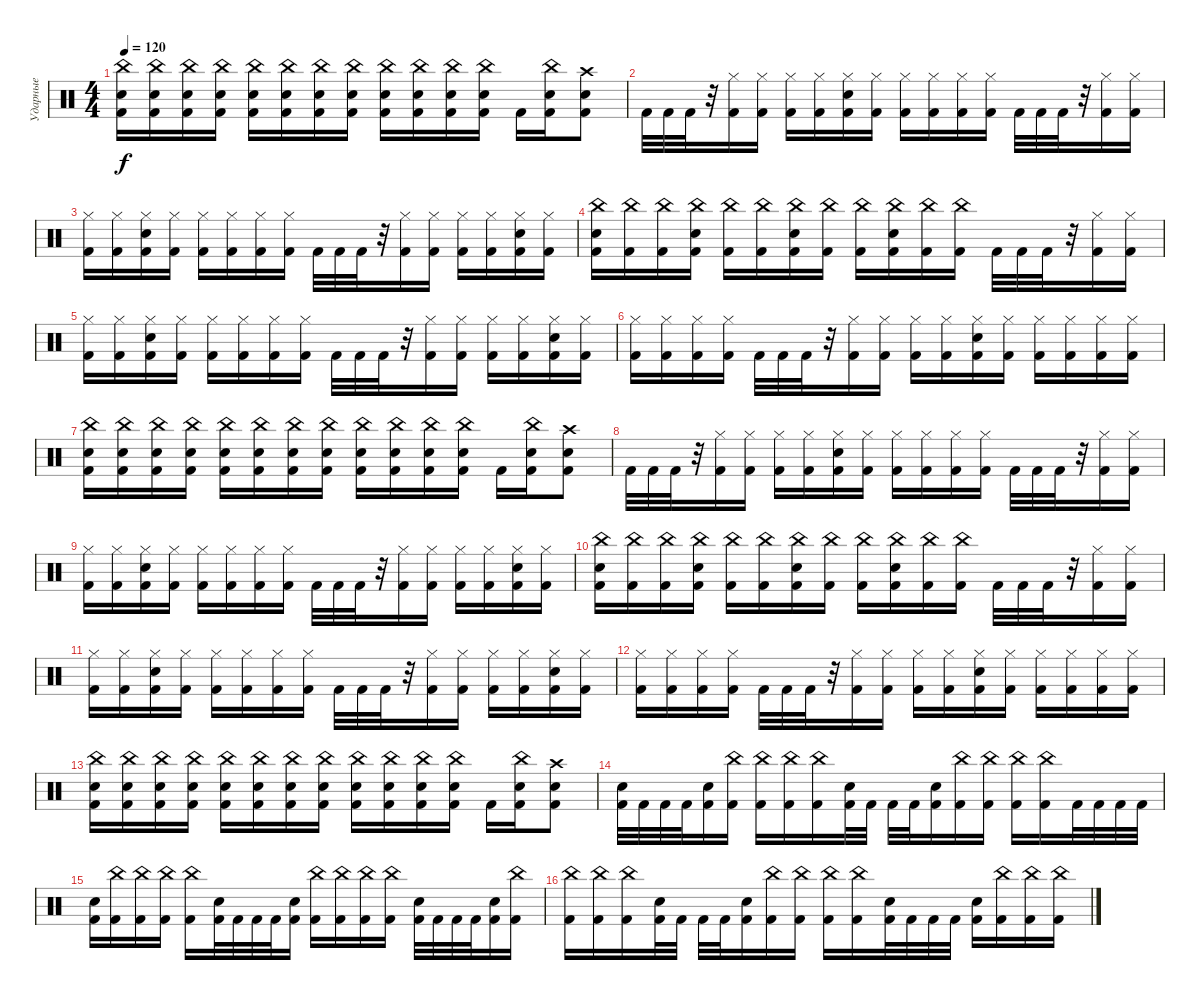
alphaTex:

\track ("Ударные" "Ударные") {instrument percussion}
\staff {score}
\articulation defaults
\ts (4 4)
\tempo 120
\clef neutral
\ks c
("China (hit)" "Snare (hit) 2" "Kick (hit) 2").16{dy f} ("China (hit)" "Snare (hit) 2" "Kick (hit) 2").16 ("China (hit)" "Snare (hit) 2" "Kick (hit) 2").16 ("China (hit)" "Snare (hit) 2" "Kick (hit) 2").16 ("China (hit)" "Snare (hit) 2" "Kick (hit) 2").16 ("China (hit)" "Snare (hit) 2" "Kick (hit) 2").16 ("China (hit)" "Snare (hit) 2" "Kick (hit) 2").16 ("China (hit)" "Snare (hit) 2" "Kick (hit) 2").16 ("China (hit)" "Snare (hit) 2" "Kick (hit) 2").16 ("China (hit)" "Snare (hit) 2" "Kick (hit) 2").16 ("China (hit)" "Snare (hit) 2" "Kick (hit) 2").16 ("China (hit)" "Snare (hit) 2" "Kick (hit) 2").16 "Kick (hit) 2".16 ("Snare (hit) 2" "China (hit)" "Kick (hit) 2").16 ("Snare (hit) 2" "Crash high (hit)" "Kick (hit) 2").8 |
"Kick (hit) 2".32 "Kick (hit) 2".32 "Kick (hit) 2".32 r.32 ("Hi-Hat (closed)" "Kick (hit) 2").16 ("Hi-Hat (closed)" "Kick (hit) 2").16 ("Hi-Hat (closed)" "Kick (hit) 2").16 ("Hi-Hat (closed)" "Kick (hit) 2").16 ("Snare (hit) 2" "Hi-Hat (closed)" "Kick (hit) 2").16 ("Hi-Hat (closed)" "Kick (hit) 2").16 ("Hi-Hat (closed)" "Kick (hit) 2").16 ("Hi-Hat (closed)" "Kick (hit) 2").16 ("Hi-Hat (closed)" "Kick (hit) 2").16 ("Hi-Hat (closed)" "Kick (hit) 2").16 "Kick (hit) 2".32 "Kick (hit) 2".32 "Kick (hit) 2".32 r.32 ("Hi-Hat (closed)" "Kick (hit) 2").16 ("Hi-Hat (closed)" "Kick (hit) 2").16 |
("Hi-Hat (closed)" "Kick (hit) 2").16 ("Hi-Hat (closed)" "Kick (hit) 2").16 ("Snare (hit) 2" "Hi-Hat (closed)" "Kick (hit) 2").16 ("Hi-Hat (closed)" "Kick (hit) 2").16 ("Hi-Hat (closed)" "Kick (hit) 2").16 ("Hi-Hat (closed)" "Kick (hit) 2").16 ("Hi-Hat (closed)" "Kick (hit) 2").16 ("Hi-Hat (closed)" "Kick (hit) 2").16 "Kick (hit) 2".32 "Kick (hit) 2".32 "Kick (hit) 2".32 r.32 ("Hi-Hat (closed)" "Kick (hit) 2").16 ("Hi-Hat (closed)" "Kick (hit) 2").16 ("Hi-Hat (closed)" "Kick (hit) 2").16 ("Hi-Hat (closed)" "Kick (hit) 2").16 ("Snare (hit) 2" "Hi-Hat (closed)" "Kick (hit) 2").16 ("Hi-Hat (closed)" "Kick (hit) 2").16 |
("China (hit)" "Snare (hit) 2" "Kick (hit) 2").16 ("China (hit)" "Kick (hit) 2").16 ("China (hit)" "Kick (hit) 2").16 ("China (hit)" "Snare (hit) 2" "Kick (hit) 2").16 ("China (hit)" "Kick (hit) 2").16 ("China (hit)" "Kick (hit) 2").16 ("China (hit)" "Snare (hit) 2" "Kick (hit) 2").16 ("China (hit)" "Kick (hit) 2").16 ("China (hit)" "Kick (hit) 2").16 ("China (hit)" "Snare (hit) 2" "Kick (hit) 2").16 ("China (hit)" "Kick (hit) 2").16 ("China (hit)" "Kick (hit) 2").16 "Kick (hit) 2".32 "Kick (hit) 2".32 "Kick (hit) 2".32 r.32 ("Hi-Hat (closed)" "Kick (hit) 2").16 ("Hi-Hat (closed)" "Kick (hit) 2").16 |
("Hi-Hat (closed)" "Kick (hit) 2").16 ("Hi-Hat (closed)" "Kick (hit) 2").16 ("Snare (hit) 2" "Hi-Hat (closed)" "Kick (hit) 2").16 ("Hi-Hat (closed)" "Kick (hit) 2").16 ("Hi-Hat (closed)" "Kick (hit) 2").16 ("Hi-Hat (closed)" "Kick (hit) 2").16 ("Hi-Hat (closed)" "Kick (hit) 2").16 ("Hi-Hat (closed)" "Kick (hit) 2").16 "Kick (hit) 2".32 "Kick (hit) 2".32 "Kick (hit) 2".32 r.32 ("Hi-Hat (closed)" "Kick (hit) 2").16 ("Hi-Hat (closed)" "Kick (hit) 2").16 ("Hi-Hat (closed)" "Kick (hit) 2").16 ("Hi-Hat (closed)" "Kick (hit) 2").16 ("Snare (hit) 2" "Hi-Hat (closed)" "Kick (hit) 2").16 ("Hi-Hat (closed)" "Kick (hit) 2").16 |
("Hi-Hat (closed)" "Kick (hit) 2").16 ("Hi-Hat (closed)" "Kick (hit) 2").16 ("Hi-Hat (closed)" "Kick (hit) 2").16 ("Hi-Hat (closed)" "Kick (hit) 2").16 "Kick (hit) 2".32 "Kick (hit) 2".32 "Kick (hit) 2".32 r.32 ("Hi-Hat (closed)" "Kick (hit) 2").16 ("Hi-Hat (closed)" "Kick (hit) 2").16 ("Hi-Hat (closed)" "Kick (hit) 2").16 ("Hi-Hat (closed)" "Kick (hit) 2").16 ("Snare (hit) 2" "Hi-Hat (closed)" "Kick (hit) 2").16 ("Hi-Hat (closed)" "Kick (hit) 2").16 ("Hi-Hat (closed)" "Kick (hit) 2").16 ("Hi-Hat (closed)" "Kick (hit) 2").16 ("Hi-Hat (closed)" "Kick (hit) 2").16 ("Hi-Hat (closed)" "Kick (hit) 2").16 |
("China (hit)" "Snare (hit) 2" "Kick (hit) 2").16 ("China (hit)" "Snare (hit) 2" "Kick (hit) 2").16 ("China (hit)" "Snare (hit) 2" "Kick (hit) 2").16 ("China (hit)" "Snare (hit) 2" "Kick (hit) 2").16 ("China (hit)" "Snare (hit) 2" "Kick (hit) 2").16 ("China (hit)" "Snare (hit) 2" "Kick (hit) 2").16 ("China (hit)" "Snare (hit) 2" "Kick (hit) 2").16 ("China (hit)" "Snare (hit) 2" "Kick (hit) 2").16 ("China (hit)" "Snare (hit) 2" "Kick (hit) 2").16 ("China (hit)" "Snare (hit) 2" "Kick (hit) 2").16 ("China (hit)" "Snare (hit) 2" "Kick (hit) 2").16 ("China (hit)" "Snare (hit) 2" "Kick (hit) 2").16 "Kick (hit) 2".16 ("Snare (hit) 2" "China (hit)" "Kick (hit) 2").16 ("Snare (hit) 2" "Crash high (hit)" "Kick (hit) 2").8 |
"Kick (hit) 2".32 "Kick (hit) 2".32 "Kick (hit) 2".32 r.32 ("Hi-Hat (closed)" "Kick (hit) 2").16 ("Hi-Hat (closed)" "Kick (hit) 2").16 ("Hi-Hat (closed)" "Kick (hit) 2").16 ("Hi-Hat (closed)" "Kick (hit) 2").16 ("Snare (hit) 2" "Hi-Hat (closed)" "Kick (hit) 2").16 ("Hi-Hat (closed)" "Kick (hit) 2").16 ("Hi-Hat (closed)" "Kick (hit) 2").16 ("Hi-Hat (closed)" "Kick (hit) 2").16 ("Hi-Hat (closed)" "Kick (hit) 2").16 ("Hi-Hat (closed)" "Kick (hit) 2").16 "Kick (hit) 2".32 "Kick (hit) 2".32 "Kick (hit) 2".32 r.32 ("Hi-Hat (closed)" "Kick (hit) 2").16 ("Hi-Hat (closed)" "Kick (hit) 2").16 |
("Hi-Hat (closed)" "Kick (hit) 2").16 ("Hi-Hat (closed)" "Kick (hit) 2").16 ("Snare (hit) 2" "Hi-Hat (closed)" "Kick (hit) 2").16 ("Hi-Hat (closed)" "Kick (hit) 2").16 ("Hi-Hat (closed)" "Kick (hit) 2").16 ("Hi-Hat (closed)" "Kick (hit) 2").16 ("Hi-Hat (closed)" "Kick (hit) 2").16 ("Hi-Hat (closed)" "Kick (hit) 2").16 "Kick (hit) 2".32 "Kick (hit) 2".32 "Kick (hit) 2".32 r.32 ("Hi-Hat (closed)" "Kick (hit) 2").16 ("Hi-Hat (closed)" "Kick (hit) 2").16 ("Hi-Hat (closed)" "Kick (hit) 2").16 ("Hi-Hat (closed)" "Kick (hit) 2").16 ("Snare (hit) 2" "Hi-Hat (closed)" "Kick (hit) 2").16 ("Hi-Hat (closed)" "Kick (hit) 2").16 |
("China (hit)" "Snare (hit) 2" "Kick (hit) 2").16 ("China (hit)" "Kick (hit) 2").16 ("China (hit)" "Kick (hit) 2").16 ("China (hit)" "Snare (hit) 2" "Kick (hit) 2").16 ("China (hit)" "Kick (hit) 2").16 ("China (hit)" "Kick (hit) 2").16 ("China (hit)" "Snare (hit) 2" "Kick (hit) 2").16 ("China (hit)" "Kick (hit) 2").16 ("China (hit)" "Kick (hit) 2").16 ("China (hit)" "Snare (hit) 2" "Kick (hit) 2").16 ("China (hit)" "Kick (hit) 2").16 ("China (hit)" "Kick (hit) 2").16 "Kick (hit) 2".32 "Kick (hit) 2".32 "Kick (hit) 2".32 r.32 ("Hi-Hat (closed)" "Kick (hit) 2").16 ("Hi-Hat (closed)" "Kick (hit) 2").16 |
("Hi-Hat (closed)" "Kick (hit) 2").16 ("Hi-Hat (closed)" "Kick (hit) 2").16 ("Snare (hit) 2" "Hi-Hat (closed)" "Kick (hit) 2").16 ("Hi-Hat (closed)" "Kick (hit) 2").16 ("Hi-Hat (closed)" "Kick (hit) 2").16 ("Hi-Hat (closed)" "Kick (hit) 2").16 ("Hi-Hat (closed)" "Kick (hit) 2").16 ("Hi-Hat (closed)" "Kick (hit) 2").16 "Kick (hit) 2".32 "Kick (hit) 2".32 "Kick (hit) 2".32 r.32 ("Hi-Hat (closed)" "Kick (hit) 2").16 ("Hi-Hat (closed)" "Kick (hit) 2").16 ("Hi-Hat (closed)" "Kick (hit) 2").16 ("Hi-Hat (closed)" "Kick (hit) 2").16 ("Snare (hit) 2" "Hi-Hat (closed)" "Kick (hit) 2").16 ("Hi-Hat (closed)" "Kick (hit) 2").16 |
("Hi-Hat (closed)" "Kick (hit) 2").16 ("Hi-Hat (closed)" "Kick (hit) 2").16 ("Hi-Hat (closed)" "Kick (hit) 2").16 ("Hi-Hat (closed)" "Kick (hit) 2").16 "Kick (hit) 2".32 "Kick (hit) 2".32 "Kick (hit) 2".32 r.32 ("Hi-Hat (closed)" "Kick (hit) 2").16 ("Hi-Hat (closed)" "Kick (hit) 2").16 ("Hi-Hat (closed)" "Kick (hit) 2").16 ("Hi-Hat (closed)" "Kick (hit) 2").16 ("Snare (hit) 2" "Hi-Hat (closed)" "Kick (hit) 2").16 ("Hi-Hat (closed)" "Kick (hit) 2").16 ("Hi-Hat (closed)" "Kick (hit) 2").16 ("Hi-Hat (closed)" "Kick (hit) 2").16 ("Hi-Hat (closed)" "Kick (hit) 2").16 ("Hi-Hat (closed)" "Kick (hit) 2").16 |
("China (hit)" "Snare (hit) 2" "Kick (hit) 2").16 ("China (hit)" "Snare (hit) 2" "Kick (hit) 2").16 ("China (hit)" "Snare (hit) 2" "Kick (hit) 2").16 ("China (hit)" "Snare (hit) 2" "Kick (hit) 2").16 ("China (hit)" "Snare (hit) 2" "Kick (hit) 2").16 ("China (hit)" "Snare (hit) 2" "Kick (hit) 2").16 ("China (hit)" "Snare (hit) 2" "Kick (hit) 2").16 ("China (hit)" "Snare (hit) 2" "Kick (hit) 2").16 ("China (hit)" "Snare (hit) 2" "Kick (hit) 2").16 ("China (hit)" "Snare (hit) 2" "Kick (hit) 2").16 ("China (hit)" "Snare (hit) 2" "Kick (hit) 2").16 ("China (hit)" "Snare (hit) 2" "Kick (hit) 2").16 "Kick (hit) 2".16 ("Snare (hit) 2" "China (hit)" "Kick (hit) 2").16 ("Snare (hit) 2" "Crash high (hit)" "Kick (hit) 2").8 |
("Snare (hit) 2" "Kick (hit) 2").32 "Kick (hit) 2".32 "Kick (hit) 2".32 "Kick (hit) 2".32 ("Snare (hit) 2" "Kick (hit) 2").16 ("China (hit)" "Kick (hit) 2").16 ("China (hit)" "Kick (hit) 2").16 ("China (hit)" "Kick (hit) 2").16 ("China (hit)" "Kick (hit) 2").16 ("Snare (hit) 2" "Kick (hit) 2").32 "Kick (hit) 2".32 "Kick (hit) 2".32 "Kick (hit) 2".32 ("Snare (hit) 2" "Kick (hit) 2").16 ("China (hit)" "Kick (hit) 2").16 ("China (hit)" "Kick (hit) 2").16 ("China (hit)" "Kick (hit) 2").16 ("China (hit)" "Kick (hit) 2").16 "Kick (hit) 2".32 "Kick (hit) 2".32 "Kick (hit) 2".32 "Kick (hit) 2".32 |
("Snare (hit) 2" "Kick (hit) 2").16 ("China (hit)" "Kick (hit) 2").16 ("China (hit)" "Kick (hit) 2").16 ("China (hit)" "Kick (hit) 2").16 ("China (hit)" "Kick (hit) 2").16 ("Snare (hit) 2" "Kick (hit) 2").32 "Kick (hit) 2".32 "Kick (hit) 2".32 "Kick (hit) 2".32 ("Snare (hit) 2" "Kick (hit) 2").16 ("China (hit)" "Kick (hit) 2").16 ("China (hit)" "Kick (hit) 2").16 ("China (hit)" "Kick (hit) 2").16 ("China (hit)" "Kick (hit) 2").16 ("Snare (hit) 2" "Kick (hit) 2").32 "Kick (hit) 2".32 "Kick (hit) 2".32 "Kick (hit) 2".32 ("Snare (hit) 2" "Kick (hit) 2").16 ("China (hit)" "Kick (hit) 2").16 |
("China (hit)" "Kick (hit) 2").16 ("China (hit)" "Kick (hit) 2").16 ("China (hit)" "Kick (hit) 2").16 ("Snare (hit) 2" "Kick (hit) 2").32 "Kick (hit) 2".32 "Kick (hit) 2".32 "Kick (hit) 2".32 ("Snare (hit) 2" "Kick (hit) 2").16 ("China (hit)" "Kick (hit) 2").16 ("China (hit)" "Kick (hit) 2").16 ("China (hit)" "Kick (hit) 2").16 ("China (hit)" "Kick (hit) 2").16 ("Snare (hit) 2" "Kick (hit) 2").32 "Kick (hit) 2".32 "Kick (hit) 2".32 "Kick (hit) 2".32 ("Snare (hit) 2" "Kick (hit) 2").16 ("China (hit)" "Kick (hit) 2").16 ("China (hit)" "Kick (hit) 2").16 ("China (hit)" "Kick (hit) 2").16
